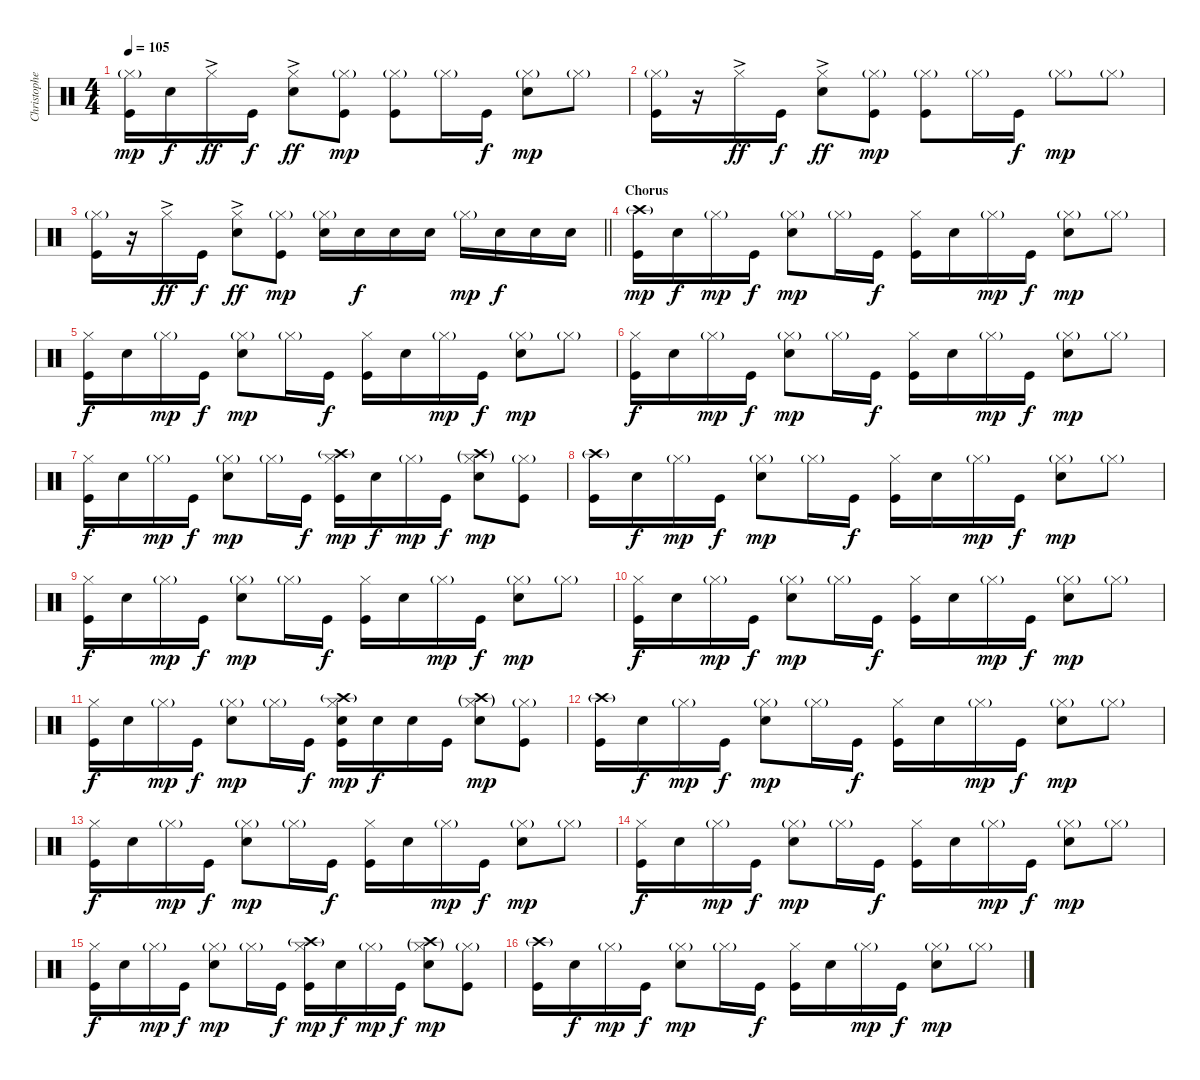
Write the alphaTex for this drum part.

\track ("Christopher - Drums" "Christophe") {instrument percussion}
\staff {score}
\articulation defaults
\ts (4 4)
\tempo 105
\clef neutral
\ks c
("Hi-Hat (closed)"{g} "Kick (hit)").16{dy mp} "Snare (hit) 2".16{dy f} "Hi-Hat (closed)"{ac}.16{dy ff} "Kick (hit)".16{dy f} ("Hi-Hat (closed)"{ac} "Snare (hit) 2").8{dy ff} ("Hi-Hat (closed)"{g} "Kick (hit)").8{dy mp} ("Hi-Hat (closed)"{g} "Kick (hit)").8 "Hi-Hat (closed)"{g}.16 "Kick (hit)".16{dy f} ("Hi-Hat (closed)"{g} "Snare (hit) 2").8{dy mp} "Hi-Hat (closed)"{g}.8 |
("Hi-Hat (closed)"{g} "Kick (hit)").16 r.16 "Hi-Hat (closed)"{ac}.16{dy ff} "Kick (hit)".16{dy f} ("Hi-Hat (closed)"{ac} "Snare (hit) 2").8{dy ff} ("Hi-Hat (closed)"{g} "Kick (hit)").8{dy mp} ("Hi-Hat (closed)"{g} "Kick (hit)").8 "Hi-Hat (closed)"{g}.16 "Kick (hit)".16{dy f} "Hi-Hat (closed)"{g}.8{dy mp} "Hi-Hat (closed)"{g}.8 |
\barLineRight lightlight
("Hi-Hat (closed)"{g} "Kick (hit)").16 r.16 "Hi-Hat (closed)"{ac}.16{dy ff} "Kick (hit)".16{dy f} ("Hi-Hat (closed)"{ac} "Snare (hit) 2").8{dy ff} ("Hi-Hat (closed)"{g} "Kick (hit)").8{dy mp} ("Hi-Hat (closed)"{g} "Snare (hit) 2").16 "Snare (hit) 2".16{dy f} "Snare (hit) 2".16 "Snare (hit) 2".16 "Hi-Hat (closed)"{g}.16{dy mp} "Snare (hit) 2".16{dy f} "Snare (hit) 2".16 "Snare (hit) 2".16 |
\section ("" "Chorus")
("Crash high (hit)"{g} "Kick (hit)").16{dy mp} "Snare (hit) 2".16{dy f} "Hi-Hat (closed)"{g}.16{dy mp} "Kick (hit)".16{dy f} ("Hi-Hat (closed)"{g} "Snare (hit) 2").8{dy mp} "Hi-Hat (closed)"{g}.16 "Kick (hit)".16{dy f} ("Hi-Hat (closed)" "Kick (hit)").16 "Snare (hit) 2".16 "Hi-Hat (closed)"{g}.16{dy mp} "Kick (hit)".16{dy f} ("Hi-Hat (closed)"{g} "Snare (hit) 2").8{dy mp} "Hi-Hat (closed)"{g}.8 |
("Hi-Hat (closed)" "Kick (hit)").16{dy f} "Snare (hit) 2".16 "Hi-Hat (closed)"{g}.16{dy mp} "Kick (hit)".16{dy f} ("Hi-Hat (closed)"{g} "Snare (hit) 2").8{dy mp} "Hi-Hat (closed)"{g}.16 "Kick (hit)".16{dy f} ("Hi-Hat (closed)" "Kick (hit)").16 "Snare (hit) 2".16 "Hi-Hat (closed)"{g}.16{dy mp} "Kick (hit)".16{dy f} ("Hi-Hat (closed)"{g} "Snare (hit) 2").8{dy mp} "Hi-Hat (closed)"{g}.8 |
("Hi-Hat (closed)" "Kick (hit)").16{dy f} "Snare (hit) 2".16 "Hi-Hat (closed)"{g}.16{dy mp} "Kick (hit)".16{dy f} ("Hi-Hat (closed)"{g} "Snare (hit) 2").8{dy mp} "Hi-Hat (closed)"{g}.16 "Kick (hit)".16{dy f} ("Hi-Hat (closed)" "Kick (hit)").16 "Snare (hit) 2".16 "Hi-Hat (closed)"{g}.16{dy mp} "Kick (hit)".16{dy f} ("Hi-Hat (closed)"{g} "Snare (hit) 2").8{dy mp} "Hi-Hat (closed)"{g}.8 |
("Hi-Hat (closed)" "Kick (hit)").16{dy f} "Snare (hit) 2".16 "Hi-Hat (closed)"{g}.16{dy mp} "Kick (hit)".16{dy f} ("Hi-Hat (closed)"{g} "Snare (hit) 2").8{dy mp} "Hi-Hat (closed)"{g}.16 "Kick (hit)".16{dy f} ("Crash high (hit)"{g} "Hi-Hat (closed)" "Kick (hit)").16{dy mp} "Snare (hit) 2".16{dy f} "Hi-Hat (closed)"{g}.16{dy mp} "Kick (hit)".16{dy f} ("Crash high (hit)"{g} "Hi-Hat (closed)"{g} "Snare (hit) 2").8{dy mp} ("Hi-Hat (closed)"{g} "Kick (hit)").8 |
("Crash high (hit)"{g} "Kick (hit)").16 "Snare (hit) 2".16{dy f} "Hi-Hat (closed)"{g}.16{dy mp} "Kick (hit)".16{dy f} ("Hi-Hat (closed)"{g} "Snare (hit) 2").8{dy mp} "Hi-Hat (closed)"{g}.16 "Kick (hit)".16{dy f} ("Hi-Hat (closed)" "Kick (hit)").16 "Snare (hit) 2".16 "Hi-Hat (closed)"{g}.16{dy mp} "Kick (hit)".16{dy f} ("Hi-Hat (closed)"{g} "Snare (hit) 2").8{dy mp} "Hi-Hat (closed)"{g}.8 |
("Hi-Hat (closed)" "Kick (hit)").16{dy f} "Snare (hit) 2".16 "Hi-Hat (closed)"{g}.16{dy mp} "Kick (hit)".16{dy f} ("Hi-Hat (closed)"{g} "Snare (hit) 2").8{dy mp} "Hi-Hat (closed)"{g}.16 "Kick (hit)".16{dy f} ("Hi-Hat (closed)" "Kick (hit)").16 "Snare (hit) 2".16 "Hi-Hat (closed)"{g}.16{dy mp} "Kick (hit)".16{dy f} ("Hi-Hat (closed)"{g} "Snare (hit) 2").8{dy mp} "Hi-Hat (closed)"{g}.8 |
("Hi-Hat (closed)" "Kick (hit)").16{dy f} "Snare (hit) 2".16 "Hi-Hat (closed)"{g}.16{dy mp} "Kick (hit)".16{dy f} ("Hi-Hat (closed)"{g} "Snare (hit) 2").8{dy mp} "Hi-Hat (closed)"{g}.16 "Kick (hit)".16{dy f} ("Hi-Hat (closed)" "Kick (hit)").16 "Snare (hit) 2".16 "Hi-Hat (closed)"{g}.16{dy mp} "Kick (hit)".16{dy f} ("Hi-Hat (closed)"{g} "Snare (hit) 2").8{dy mp} "Hi-Hat (closed)"{g}.8 |
("Hi-Hat (closed)" "Kick (hit)").16{dy f} "Snare (hit) 2".16 "Hi-Hat (closed)"{g}.16{dy mp} "Kick (hit)".16{dy f} ("Hi-Hat (closed)"{g} "Snare (hit) 2").8{dy mp} "Hi-Hat (closed)"{g}.16 "Kick (hit)".16{dy f} ("Crash high (hit)"{g} "Hi-Hat (closed)" "Snare (hit) 2" "Kick (hit)").16{dy mp} "Snare (hit) 2".16{dy f} "Snare (hit) 2".16 "Kick (hit)".16 ("Crash high (hit)"{g} "Hi-Hat (closed)"{g} "Snare (hit) 2").8{dy mp} ("Hi-Hat (closed)"{g} "Kick (hit)").8 |
("Crash high (hit)"{g} "Kick (hit)").16 "Snare (hit) 2".16{dy f} "Hi-Hat (closed)"{g}.16{dy mp} "Kick (hit)".16{dy f} ("Hi-Hat (closed)"{g} "Snare (hit) 2").8{dy mp} "Hi-Hat (closed)"{g}.16 "Kick (hit)".16{dy f} ("Hi-Hat (closed)" "Kick (hit)").16 "Snare (hit) 2".16 "Hi-Hat (closed)"{g}.16{dy mp} "Kick (hit)".16{dy f} ("Hi-Hat (closed)"{g} "Snare (hit) 2").8{dy mp} "Hi-Hat (closed)"{g}.8 |
("Hi-Hat (closed)" "Kick (hit)").16{dy f} "Snare (hit) 2".16 "Hi-Hat (closed)"{g}.16{dy mp} "Kick (hit)".16{dy f} ("Hi-Hat (closed)"{g} "Snare (hit) 2").8{dy mp} "Hi-Hat (closed)"{g}.16 "Kick (hit)".16{dy f} ("Hi-Hat (closed)" "Kick (hit)").16 "Snare (hit) 2".16 "Hi-Hat (closed)"{g}.16{dy mp} "Kick (hit)".16{dy f} ("Hi-Hat (closed)"{g} "Snare (hit) 2").8{dy mp} "Hi-Hat (closed)"{g}.8 |
("Hi-Hat (closed)" "Kick (hit)").16{dy f} "Snare (hit) 2".16 "Hi-Hat (closed)"{g}.16{dy mp} "Kick (hit)".16{dy f} ("Hi-Hat (closed)"{g} "Snare (hit) 2").8{dy mp} "Hi-Hat (closed)"{g}.16 "Kick (hit)".16{dy f} ("Hi-Hat (closed)" "Kick (hit)").16 "Snare (hit) 2".16 "Hi-Hat (closed)"{g}.16{dy mp} "Kick (hit)".16{dy f} ("Hi-Hat (closed)"{g} "Snare (hit) 2").8{dy mp} "Hi-Hat (closed)"{g}.8 |
("Hi-Hat (closed)" "Kick (hit)").16{dy f} "Snare (hit) 2".16 "Hi-Hat (closed)"{g}.16{dy mp} "Kick (hit)".16{dy f} ("Hi-Hat (closed)"{g} "Snare (hit) 2").8{dy mp} "Hi-Hat (closed)"{g}.16 "Kick (hit)".16{dy f} ("Crash high (hit)"{g} "Hi-Hat (closed)" "Kick (hit)").16{dy mp} "Snare (hit) 2".16{dy f} "Hi-Hat (closed)"{g}.16{dy mp} "Kick (hit)".16{dy f} ("Crash high (hit)"{g} "Hi-Hat (closed)"{g} "Snare (hit) 2").8{dy mp} ("Hi-Hat (closed)"{g} "Kick (hit)").8 |
("Crash high (hit)"{g} "Kick (hit)").16 "Snare (hit) 2".16{dy f} "Hi-Hat (closed)"{g}.16{dy mp} "Kick (hit)".16{dy f} ("Hi-Hat (closed)"{g} "Snare (hit) 2").8{dy mp} "Hi-Hat (closed)"{g}.16 "Kick (hit)".16{dy f} ("Hi-Hat (closed)" "Kick (hit)").16 "Snare (hit) 2".16 "Hi-Hat (closed)"{g}.16{dy mp} "Kick (hit)".16{dy f} ("Hi-Hat (closed)"{g} "Snare (hit) 2").8{dy mp} "Hi-Hat (closed)"{g}.8
